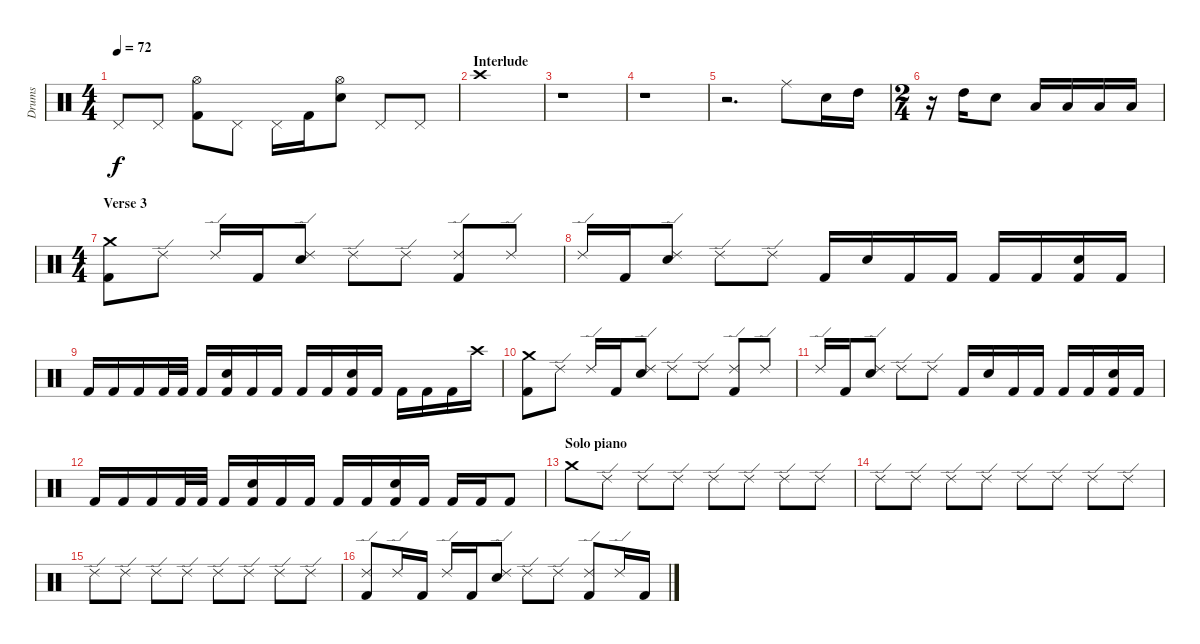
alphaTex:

\track ("Drums" "Drums") {instrument percussion}
\staff {score}
\articulation defaults
\ts (4 4)
\tempo 72
\clef neutral
\ks c "Pedal Hi-Hat (hit)".8{dy f} "Pedal Hi-Hat (hit)".8
("Hi-Hat (open)" "Kick (hit) 2").8 "Pedal Hi-Hat (hit)".8 "Pedal Hi-Hat (hit)".16 "Kick (hit) 2".16 ("Hi-Hat (open)" "Electric Snare (hit)").8 "Pedal Hi-Hat (hit)".8 "Pedal Hi-Hat (hit)".8 |
\section ("" "Interlude")
"Crash high (hit)".1 |
r.1 |
r.1 |
r.2{d} "Ride (middle)".8 "Electric Snare (hit)".16 "High Tom (hit)".16 |
\ts (2 4)
r.16 "High Tom (hit)".16 "Electric Snare (hit)".8 "Low Tom (hit)".16 "Low Tom (hit)".16 "Low Tom (hit)".16 "Low Tom (hit)".16 |
\ts (4 4)
\section ("" "Verse 3")
("Crash medium (hit)" "Kick (hit) 2").8 "Ride (edge) 2".8 "Ride (edge) 2".16 "Kick (hit) 2".16 ("Ride (edge) 2" "Electric Snare (hit)").8 "Ride (edge) 2".8 "Ride (edge) 2".8 ("Ride (edge) 2" "Kick (hit) 2").8 "Ride (edge) 2".8 |
"Ride (edge) 2".16 "Kick (hit) 2".16 ("Ride (edge) 2" "Electric Snare (hit)").8 "Ride (edge) 2".8 "Ride (edge) 2".8 "Kick (hit) 2".16 "Electric Snare (hit)".16 "Kick (hit) 2".16 "Kick (hit) 2".16 "Kick (hit) 2".16 "Kick (hit) 2".16 ("Electric Snare (hit)" "Kick (hit) 2").16 "Kick (hit) 2".16 |
"Kick (hit) 2".16 "Kick (hit) 2".16 "Kick (hit) 2".16 "Kick (hit) 2".32 "Kick (hit) 2".32 "Kick (hit) 2".16 ("Electric Snare (hit)" "Kick (hit) 2").16 "Kick (hit) 2".16 "Kick (hit) 2".16 "Kick (hit) 2".16 "Kick (hit) 2".16 ("Electric Snare (hit)" "Kick (hit) 2").16 "Kick (hit) 2".16 "Kick (hit) 2".16 "Kick (hit) 2".16 "Kick (hit) 2".16 "Crash high (hit)".16 |
("Crash medium (hit)" "Kick (hit) 2").8 "Ride (edge) 2".8 "Ride (edge) 2".16 "Kick (hit) 2".16 ("Ride (edge) 2" "Electric Snare (hit)").8 "Ride (edge) 2".8 "Ride (edge) 2".8 ("Ride (edge) 2" "Kick (hit) 2").8 "Ride (edge) 2".8 |
"Ride (edge) 2".16 "Kick (hit) 2".16 ("Ride (edge) 2" "Electric Snare (hit)").8 "Ride (edge) 2".8 "Ride (edge) 2".8 "Kick (hit) 2".16 "Electric Snare (hit)".16 "Kick (hit) 2".16 "Kick (hit) 2".16 "Kick (hit) 2".16 "Kick (hit) 2".16 ("Electric Snare (hit)" "Kick (hit) 2").16 "Kick (hit) 2".16 |
"Kick (hit) 2".16 "Kick (hit) 2".16 "Kick (hit) 2".16 "Kick (hit) 2".32 "Kick (hit) 2".32 "Kick (hit) 2".16 ("Electric Snare (hit)" "Kick (hit) 2").16 "Kick (hit) 2".16 "Kick (hit) 2".16 "Kick (hit) 2".16 "Kick (hit) 2".16 ("Electric Snare (hit)" "Kick (hit) 2").16 "Kick (hit) 2".16 "Kick (hit) 2".16 "Kick (hit) 2".16 "Kick (hit) 2".8 |
\section ("" "Solo piano")
"Crash medium (hit)".8 "Ride (edge) 2".8 "Ride (edge) 2".8 "Ride (edge) 2".8 "Ride (edge) 2".8 "Ride (edge) 2".8 "Ride (edge) 2".8 "Ride (edge) 2".8 |
"Ride (edge) 2".8 "Ride (edge) 2".8 "Ride (edge) 2".8 "Ride (edge) 2".8 "Ride (edge) 2".8 "Ride (edge) 2".8 "Ride (edge) 2".8 "Ride (edge) 2".8 |
"Ride (edge) 2".8 "Ride (edge) 2".8 "Ride (edge) 2".8 "Ride (edge) 2".8 "Ride (edge) 2".8 "Ride (edge) 2".8 "Ride (edge) 2".8 "Ride (edge) 2".8 |
("Ride (edge) 2" "Kick (hit) 2").8 "Ride (edge) 2".16 "Kick (hit) 2".16 "Ride (edge) 2".16 "Kick (hit) 2".16 ("Ride (edge) 2" "Electric Snare (hit)").8 "Ride (edge) 2".8 "Ride (edge) 2".8 ("Ride (edge) 2" "Kick (hit) 2").8 "Ride (edge) 2".16 "Kick (hit) 2".16
